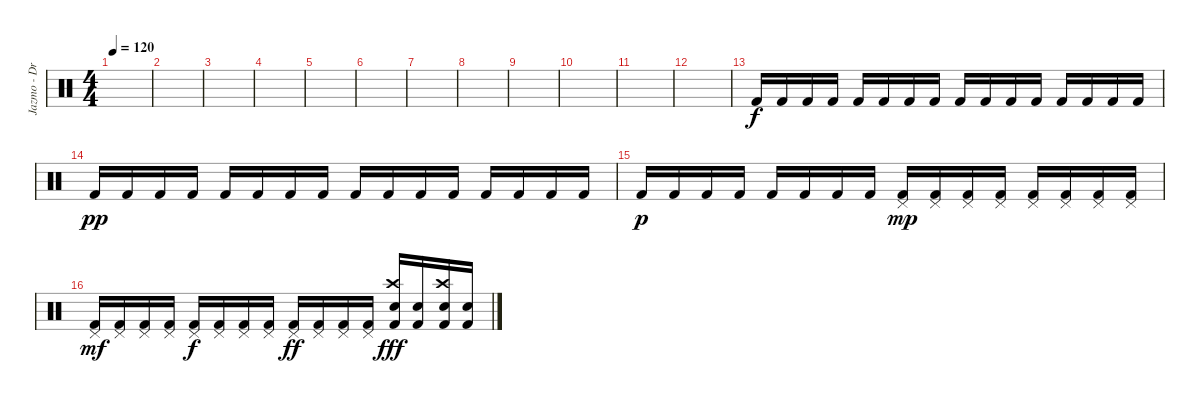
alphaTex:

\track ("Jazmo - Drums" "Jazmo - Dr") {instrument percussion}
\staff {score}
\articulation defaults
\ts (4 4)
\tempo 120
\clef neutral
\ks c
|
|
|
|
|
|
|
|
|
|
|
|
"Kick (hit) 2".16 "Kick (hit) 2".16 "Kick (hit) 2".16 "Kick (hit) 2".16 "Kick (hit) 2".16 "Kick (hit) 2".16 "Kick (hit) 2".16 "Kick (hit) 2".16 "Kick (hit) 2".16 "Kick (hit) 2".16 "Kick (hit) 2".16 "Kick (hit) 2".16 "Kick (hit) 2".16 "Kick (hit) 2".16 "Kick (hit) 2".16 "Kick (hit) 2".16 |
"Kick (hit) 2".16{dy pp} "Kick (hit) 2".16 "Kick (hit) 2".16 "Kick (hit) 2".16 "Kick (hit) 2".16 "Kick (hit) 2".16 "Kick (hit) 2".16 "Kick (hit) 2".16 "Kick (hit) 2".16 "Kick (hit) 2".16 "Kick (hit) 2".16 "Kick (hit) 2".16 "Kick (hit) 2".16 "Kick (hit) 2".16 "Kick (hit) 2".16 "Kick (hit) 2".16 |
"Kick (hit) 2".16{dy p} "Kick (hit) 2".16 "Kick (hit) 2".16 "Kick (hit) 2".16 "Kick (hit) 2".16 "Kick (hit) 2".16 "Kick (hit) 2".16 "Kick (hit) 2".16 ("Pedal Hi-Hat (hit)" "Kick (hit) 2").16{dy mp} ("Pedal Hi-Hat (hit)" "Kick (hit) 2").16 ("Pedal Hi-Hat (hit)" "Kick (hit) 2").16 ("Pedal Hi-Hat (hit)" "Kick (hit) 2").16 ("Pedal Hi-Hat (hit)" "Kick (hit) 2").16 ("Pedal Hi-Hat (hit)" "Kick (hit) 2").16 ("Pedal Hi-Hat (hit)" "Kick (hit) 2").16 ("Pedal Hi-Hat (hit)" "Kick (hit) 2").16 |
("Pedal Hi-Hat (hit)" "Kick (hit) 2").16{dy mf} ("Pedal Hi-Hat (hit)" "Kick (hit) 2").16 ("Pedal Hi-Hat (hit)" "Kick (hit) 2").16 ("Pedal Hi-Hat (hit)" "Kick (hit) 2").16 ("Pedal Hi-Hat (hit)" "Kick (hit) 2").16{dy f} ("Pedal Hi-Hat (hit)" "Kick (hit) 2").16 ("Pedal Hi-Hat (hit)" "Kick (hit) 2").16 ("Pedal Hi-Hat (hit)" "Kick (hit) 2").16 ("Pedal Hi-Hat (hit)" "Kick (hit) 2").16{dy ff} ("Pedal Hi-Hat (hit)" "Kick (hit) 2").16 ("Pedal Hi-Hat (hit)" "Kick (hit) 2").16 ("Pedal Hi-Hat (hit)" "Kick (hit) 2").16 ("Crash high (hit)" "Electric Snare (hit)" "Kick (hit) 2").16{dy fff} ("Electric Snare (hit)" "Kick (hit) 2").16 ("Crash high (hit)" "Electric Snare (hit)" "Kick (hit) 2").16 ("Electric Snare (hit)" "Kick (hit) 2").16
